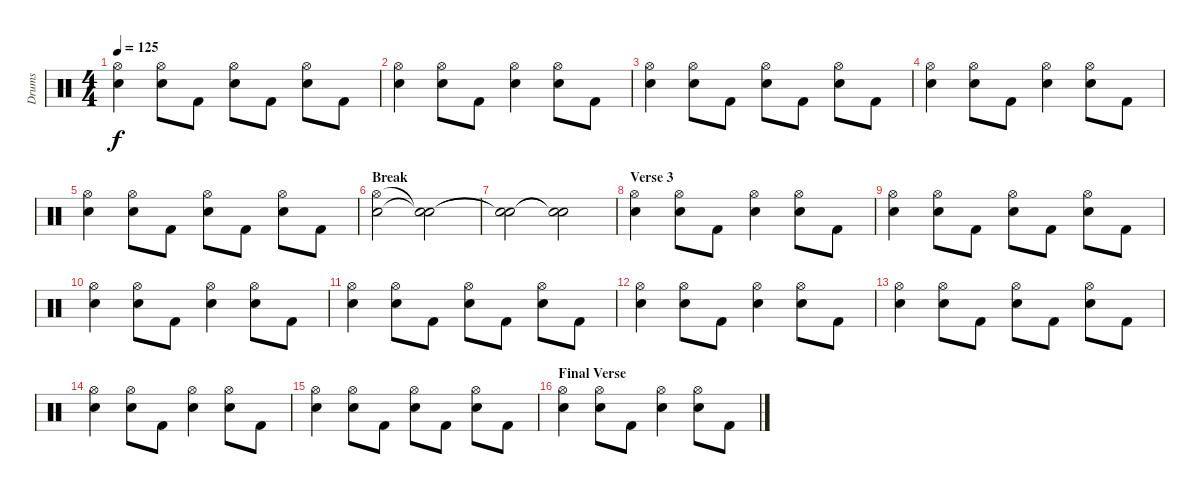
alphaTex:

\track ("Drums" "Drums") {instrument percussion}
\staff {score}
\articulation defaults
\ts (4 4)
\tempo 125
\clef neutral
\ks c
("Hi-Hat (open)" "Electric Snare (hit)").4{dy f} ("Hi-Hat (open)" "Electric Snare (hit)").8 "Kick (hit) 2".8 ("Hi-Hat (open)" "Electric Snare (hit)").8 "Kick (hit) 2".8 ("Hi-Hat (open)" "Electric Snare (hit)").8 "Kick (hit) 2".8 |
("Hi-Hat (open)" "Electric Snare (hit)").4 ("Hi-Hat (open)" "Electric Snare (hit)").8 "Kick (hit) 2".8 ("Hi-Hat (open)" "Electric Snare (hit)").4 ("Hi-Hat (open)" "Electric Snare (hit)").8 "Kick (hit) 2".8 |
("Hi-Hat (open)" "Electric Snare (hit)").4 ("Hi-Hat (open)" "Electric Snare (hit)").8 "Kick (hit) 2".8 ("Hi-Hat (open)" "Electric Snare (hit)").8 "Kick (hit) 2".8 ("Hi-Hat (open)" "Electric Snare (hit)").8 "Kick (hit) 2".8 |
("Hi-Hat (open)" "Electric Snare (hit)").4 ("Hi-Hat (open)" "Electric Snare (hit)").8 "Kick (hit) 2".8 ("Hi-Hat (open)" "Electric Snare (hit)").4 ("Hi-Hat (open)" "Electric Snare (hit)").8 "Kick (hit) 2".8 |
("Hi-Hat (open)" "Electric Snare (hit)").4 ("Hi-Hat (open)" "Electric Snare (hit)").8 "Kick (hit) 2".8 ("Hi-Hat (open)" "Electric Snare (hit)").8 "Kick (hit) 2".8 ("Hi-Hat (open)" "Electric Snare (hit)").8 "Kick (hit) 2".8 |
\section ("" "Break")
("Electric Snare (hit)" "Hi-Hat (open)").2 ("Snare (hit)"{t} "Snare (hit)"{t}).2 |
("Snare (hit)"{t} "Snare (hit)"{t}).2 ("Snare (hit)"{t} "Snare (hit)"{t}).2 |
\section ("" "Verse 3")
("Hi-Hat (open)" "Electric Snare (hit)").4 ("Hi-Hat (open)" "Electric Snare (hit)").8 "Kick (hit) 2".8 ("Hi-Hat (open)" "Electric Snare (hit)").4 ("Hi-Hat (open)" "Electric Snare (hit)").8 "Kick (hit) 2".8 |
("Hi-Hat (open)" "Electric Snare (hit)").4 ("Hi-Hat (open)" "Electric Snare (hit)").8 "Kick (hit) 2".8 ("Hi-Hat (open)" "Electric Snare (hit)").8 "Kick (hit) 2".8 ("Hi-Hat (open)" "Electric Snare (hit)").8 "Kick (hit) 2".8 |
("Hi-Hat (open)" "Electric Snare (hit)").4 ("Hi-Hat (open)" "Electric Snare (hit)").8 "Kick (hit) 2".8 ("Hi-Hat (open)" "Electric Snare (hit)").4 ("Hi-Hat (open)" "Electric Snare (hit)").8 "Kick (hit) 2".8 |
("Hi-Hat (open)" "Electric Snare (hit)").4 ("Hi-Hat (open)" "Electric Snare (hit)").8 "Kick (hit) 2".8 ("Hi-Hat (open)" "Electric Snare (hit)").8 "Kick (hit) 2".8 ("Hi-Hat (open)" "Electric Snare (hit)").8 "Kick (hit) 2".8 |
("Hi-Hat (open)" "Electric Snare (hit)").4 ("Hi-Hat (open)" "Electric Snare (hit)").8 "Kick (hit) 2".8 ("Hi-Hat (open)" "Electric Snare (hit)").4 ("Hi-Hat (open)" "Electric Snare (hit)").8 "Kick (hit) 2".8 |
("Hi-Hat (open)" "Electric Snare (hit)").4 ("Hi-Hat (open)" "Electric Snare (hit)").8 "Kick (hit) 2".8 ("Hi-Hat (open)" "Electric Snare (hit)").8 "Kick (hit) 2".8 ("Hi-Hat (open)" "Electric Snare (hit)").8 "Kick (hit) 2".8 |
("Hi-Hat (open)" "Electric Snare (hit)").4 ("Hi-Hat (open)" "Electric Snare (hit)").8 "Kick (hit) 2".8 ("Hi-Hat (open)" "Electric Snare (hit)").4 ("Hi-Hat (open)" "Electric Snare (hit)").8 "Kick (hit) 2".8 |
("Hi-Hat (open)" "Electric Snare (hit)").4 ("Hi-Hat (open)" "Electric Snare (hit)").8 "Kick (hit) 2".8 ("Hi-Hat (open)" "Electric Snare (hit)").8 "Kick (hit) 2".8 ("Hi-Hat (open)" "Electric Snare (hit)").8 "Kick (hit) 2".8 |
\section ("" "Final Verse")
("Electric Snare (hit)" "Hi-Hat (open)").4 ("Hi-Hat (open)" "Electric Snare (hit)").8 "Kick (hit) 2".8 ("Hi-Hat (open)" "Electric Snare (hit)").4 ("Hi-Hat (open)" "Electric Snare (hit)").8 "Kick (hit) 2".8
